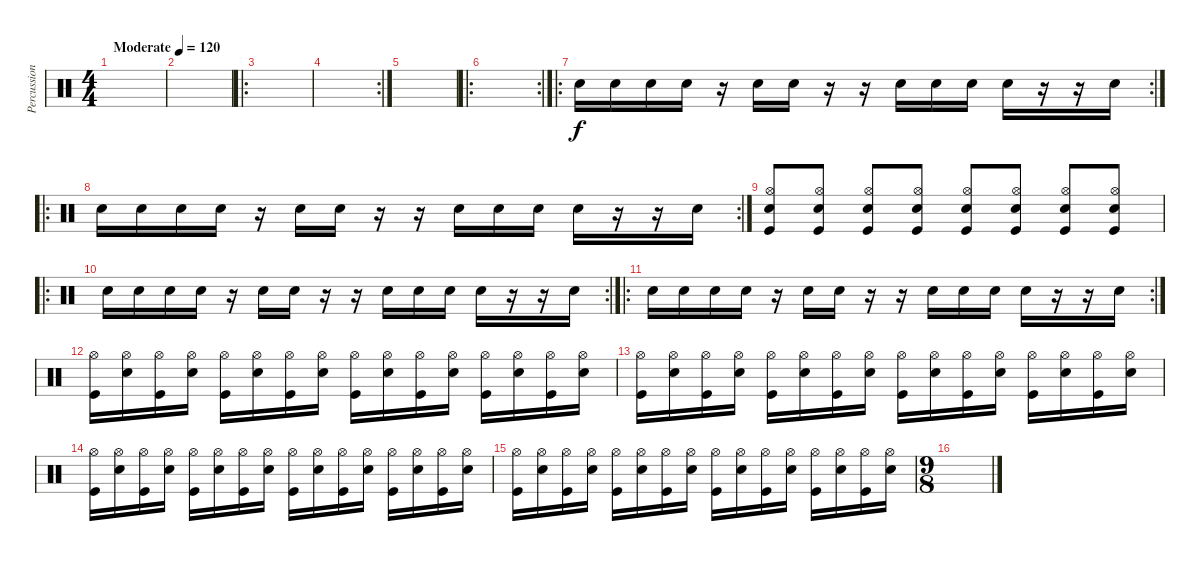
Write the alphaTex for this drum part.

\track ("Percussion" "Percussion") {instrument percussion}
\staff {score}
\articulation defaults
\ts (4 4)
\tempo (120 "Moderate")
\clef neutral
\ks c
|
|
\ro
|
\rc 2
|
|
\ro
\rc 2
|
\ro
\rc 2 "Snare (hit) 2".16 "Snare (hit) 2".16 "Snare (hit) 2".16 "Snare (hit) 2".16
r.16 "Snare (hit) 2".16 "Snare (hit) 2".16 r.16 r.16 "Snare (hit) 2".16 "Snare (hit) 2".16 "Snare (hit) 2".16 "Snare (hit) 2".16 r.16 r.16 "Snare (hit) 2".16 |
\ro
\rc 2 "Snare (hit) 2".16 "Snare (hit) 2".16 "Snare (hit) 2".16 "Snare (hit) 2".16
r.16 "Snare (hit) 2".16 "Snare (hit) 2".16 r.16 r.16 "Snare (hit) 2".16 "Snare (hit) 2".16 "Snare (hit) 2".16 "Snare (hit) 2".16 r.16 r.16 "Snare (hit) 2".16 |
("Hi-Hat (open)" "Snare (hit) 2" "Kick (hit)").8 ("Hi-Hat (open)" "Snare (hit) 2" "Kick (hit)").8 ("Hi-Hat (open)" "Snare (hit) 2" "Kick (hit)").8 ("Hi-Hat (open)" "Snare (hit) 2" "Kick (hit)").8 ("Hi-Hat (open)" "Snare (hit) 2" "Kick (hit)").8 ("Hi-Hat (open)" "Snare (hit) 2" "Kick (hit)").8 ("Hi-Hat (open)" "Snare (hit) 2" "Kick (hit)").8 ("Hi-Hat (open)" "Snare (hit) 2" "Kick (hit)").8 |
\ro
\rc 2 "Snare (hit) 2".16 "Snare (hit) 2".16 "Snare (hit) 2".16 "Snare (hit) 2".16
r.16 "Snare (hit) 2".16 "Snare (hit) 2".16 r.16 r.16 "Snare (hit) 2".16 "Snare (hit) 2".16 "Snare (hit) 2".16 "Snare (hit) 2".16 r.16 r.16 "Snare (hit) 2".16 |
\ro
\rc 2 "Snare (hit) 2".16 "Snare (hit) 2".16 "Snare (hit) 2".16 "Snare (hit) 2".16
r.16 "Snare (hit) 2".16 "Snare (hit) 2".16 r.16 r.16 "Snare (hit) 2".16 "Snare (hit) 2".16 "Snare (hit) 2".16 "Snare (hit) 2".16 r.16 r.16 "Snare (hit) 2".16 |
("Hi-Hat (open)" "Kick (hit)").16 ("Hi-Hat (open)" "Snare (hit) 2").16 ("Hi-Hat (open)" "Kick (hit)").16 ("Hi-Hat (open)" "Snare (hit) 2").16 ("Hi-Hat (open)" "Kick (hit)").16 ("Hi-Hat (open)" "Snare (hit) 2").16 ("Hi-Hat (open)" "Kick (hit)").16 ("Hi-Hat (open)" "Snare (hit) 2").16 ("Hi-Hat (open)" "Kick (hit)").16 ("Hi-Hat (open)" "Snare (hit) 2").16 ("Hi-Hat (open)" "Kick (hit)").16 ("Hi-Hat (open)" "Snare (hit) 2").16 ("Hi-Hat (open)" "Kick (hit)").16 ("Hi-Hat (open)" "Snare (hit) 2").16 ("Hi-Hat (open)" "Kick (hit)").16 ("Hi-Hat (open)" "Snare (hit) 2").16 |
("Hi-Hat (open)" "Kick (hit)").16 ("Hi-Hat (open)" "Snare (hit) 2").16 ("Hi-Hat (open)" "Kick (hit)").16 ("Hi-Hat (open)" "Snare (hit) 2").16 ("Hi-Hat (open)" "Kick (hit)").16 ("Hi-Hat (open)" "Snare (hit) 2").16 ("Hi-Hat (open)" "Kick (hit)").16 ("Hi-Hat (open)" "Snare (hit) 2").16 ("Hi-Hat (open)" "Kick (hit)").16 ("Hi-Hat (open)" "Snare (hit) 2").16 ("Hi-Hat (open)" "Kick (hit)").16 ("Hi-Hat (open)" "Snare (hit) 2").16 ("Hi-Hat (open)" "Kick (hit)").16 ("Hi-Hat (open)" "Snare (hit) 2").16 ("Hi-Hat (open)" "Kick (hit)").16 ("Hi-Hat (open)" "Snare (hit) 2").16 |
("Hi-Hat (open)" "Kick (hit)").16 ("Hi-Hat (open)" "Snare (hit) 2").16 ("Hi-Hat (open)" "Kick (hit)").16 ("Hi-Hat (open)" "Snare (hit) 2").16 ("Hi-Hat (open)" "Kick (hit)").16 ("Hi-Hat (open)" "Snare (hit) 2").16 ("Hi-Hat (open)" "Kick (hit)").16 ("Hi-Hat (open)" "Snare (hit) 2").16 ("Hi-Hat (open)" "Kick (hit)").16 ("Hi-Hat (open)" "Snare (hit) 2").16 ("Hi-Hat (open)" "Kick (hit)").16 ("Hi-Hat (open)" "Snare (hit) 2").16 ("Hi-Hat (open)" "Kick (hit)").16 ("Hi-Hat (open)" "Snare (hit) 2").16 ("Hi-Hat (open)" "Kick (hit)").16 ("Hi-Hat (open)" "Snare (hit) 2").16 |
("Hi-Hat (open)" "Kick (hit)").16 ("Hi-Hat (open)" "Snare (hit) 2").16 ("Hi-Hat (open)" "Kick (hit)").16 ("Hi-Hat (open)" "Snare (hit) 2").16 ("Hi-Hat (open)" "Kick (hit)").16 ("Hi-Hat (open)" "Snare (hit) 2").16 ("Hi-Hat (open)" "Kick (hit)").16 ("Hi-Hat (open)" "Snare (hit) 2").16 ("Hi-Hat (open)" "Kick (hit)").16 ("Hi-Hat (open)" "Snare (hit) 2").16 ("Hi-Hat (open)" "Kick (hit)").16 ("Hi-Hat (open)" "Snare (hit) 2").16 ("Hi-Hat (open)" "Kick (hit)").16 ("Hi-Hat (open)" "Snare (hit) 2").16 ("Hi-Hat (open)" "Kick (hit)").16 ("Hi-Hat (open)" "Snare (hit) 2").16 |
\ts (9 8)
